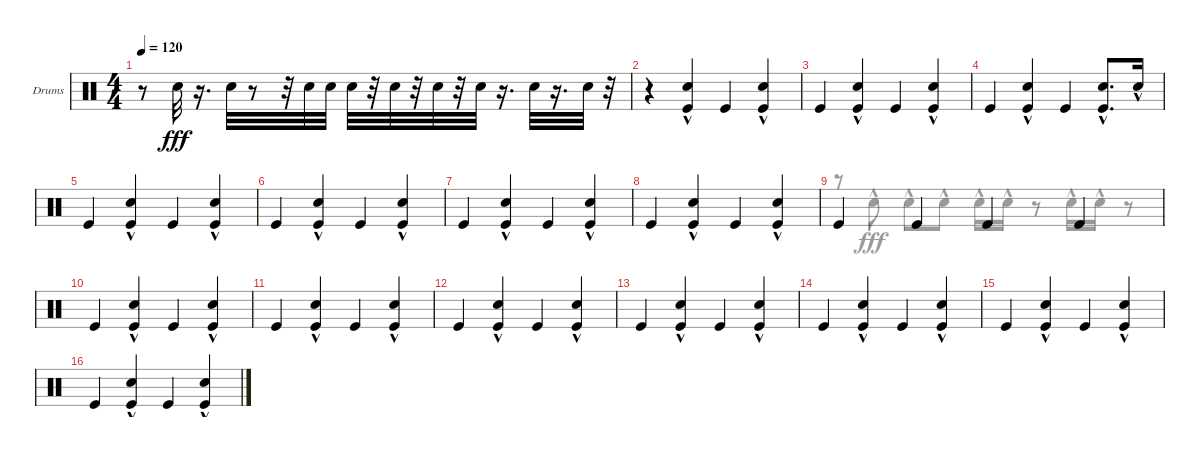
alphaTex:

\defaultSystemsLayout 4
\bracketExtendMode nobrackets
\firstSystemTrackNameOrientation horizontal
\otherSystemsTrackNameOrientation horizontal
\track ("Drumkit" "Drums") {instrument percussion}
\staff {score}
\articulation defaults
\voice
\ts (4 4)
\tempo 120
\clef neutral
\ks c
r.8{dy f} "Snare (hit) 2".32{dy fff} r.16{d} "Snare (hit) 2".32 r.8 r.32 "Snare (hit) 2".32 "Snare (hit) 2".32 "Snare (hit) 2".32 r.32 "Snare (hit) 2".32 r.32 "Snare (hit) 2".32 r.32 "Snare (hit) 2".32 r.16{d} "Snare (hit) 2".32 r.16{d} "Snare (hit) 2".32 r.32 |
r.4 ("Kick (hit)" "Snare (hit) 2"{hac}).4 "Kick (hit)".4 ("Kick (hit)" "Snare (hit) 2"{hac}).4 |
"Kick (hit)".4 ("Kick (hit)" "Snare (hit) 2"{hac}).4 "Kick (hit)".4 ("Kick (hit)" "Snare (hit) 2"{hac}).4 |
"Kick (hit)".4 ("Kick (hit)" "Snare (hit) 2"{hac}).4 "Kick (hit)".4 ("Kick (hit)" "Snare (hit) 2"{hac}).8{d} "Snare (hit) 2"{hac}.16 |
"Kick (hit)".4 ("Kick (hit)" "Snare (hit) 2"{hac}).4 "Kick (hit)".4 ("Kick (hit)" "Snare (hit) 2"{hac}).4 |
"Kick (hit)".4 ("Kick (hit)" "Snare (hit) 2"{hac}).4 "Kick (hit)".4 ("Kick (hit)" "Snare (hit) 2"{hac}).4 |
"Kick (hit)".4 ("Kick (hit)" "Snare (hit) 2"{hac}).4 "Kick (hit)".4 ("Kick (hit)" "Snare (hit) 2"{hac}).4 |
"Kick (hit)".4 ("Kick (hit)" "Snare (hit) 2"{hac}).4 "Kick (hit)".4 ("Kick (hit)" "Snare (hit) 2"{hac}).4 |
"Kick (hit)".4 "Kick (hit)".4 "Kick (hit)".4 "Kick (hit)".4 |
"Kick (hit)".4 ("Kick (hit)" "Snare (hit) 2"{hac}).4 "Kick (hit)".4 ("Kick (hit)" "Snare (hit) 2"{hac}).4 |
"Kick (hit)".4 ("Kick (hit)" "Snare (hit) 2"{hac}).4 "Kick (hit)".4 ("Kick (hit)" "Snare (hit) 2"{hac}).4 |
"Kick (hit)".4 ("Kick (hit)" "Snare (hit) 2"{hac}).4 "Kick (hit)".4 ("Kick (hit)" "Snare (hit) 2"{hac}).4 |
"Kick (hit)".4 ("Kick (hit)" "Snare (hit) 2"{hac}).4 "Kick (hit)".4 ("Kick (hit)" "Snare (hit) 2"{hac}).4 |
"Kick (hit)".4 ("Kick (hit)" "Snare (hit) 2"{hac}).4 "Kick (hit)".4 ("Kick (hit)" "Snare (hit) 2"{hac}).4 |
"Kick (hit)".4 ("Kick (hit)" "Snare (hit) 2"{hac}).4 "Kick (hit)".4 ("Kick (hit)" "Snare (hit) 2"{hac}).4 |
"Kick (hit)".4 ("Kick (hit)" "Snare (hit) 2"{hac}).4 "Kick (hit)".4 ("Kick (hit)" "Snare (hit) 2"{hac}).4
\voice
\clef neutral
\ottava regular
\simile none
\ks c
|
|
|
|
|
|
|
|
r.8 "Snare (hit) 2"{hac}.8{dy fff} "Snare (hit) 2"{hac}.8 "Snare (hit) 2"{hac}.8 "Snare (hit) 2"{hac}.16 "Snare (hit) 2"{hac}.16 r.8 "Snare (hit) 2"{hac}.16 "Snare (hit) 2"{hac}.16 r.8 |
|
|
|
|
|
|
